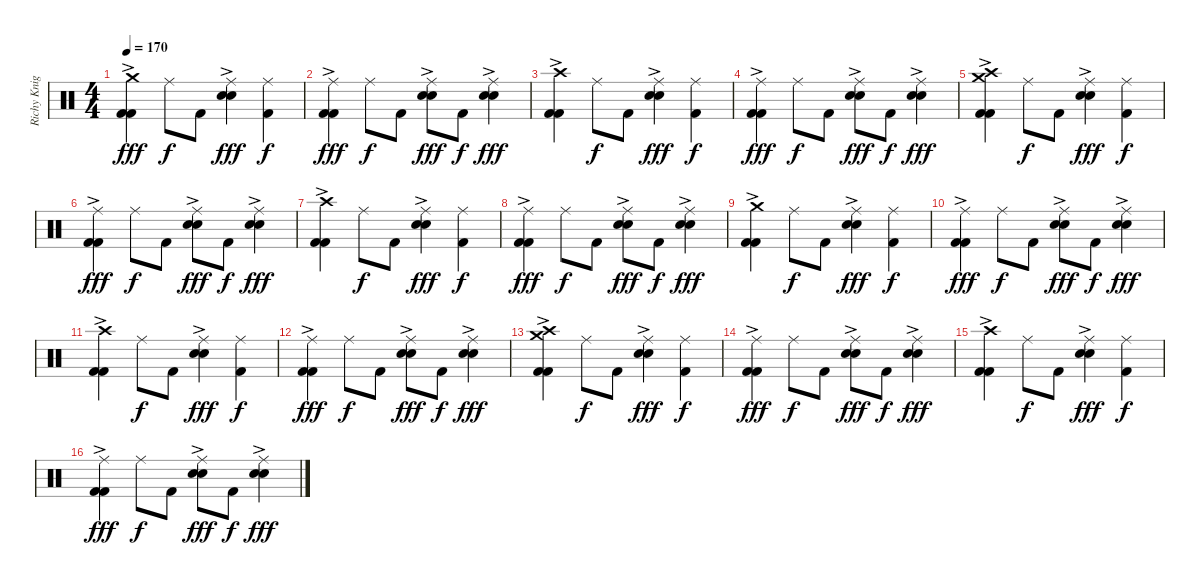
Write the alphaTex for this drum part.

\track ("Richy Knight (Drums)" "Richy Knig") {instrument percussion}
\staff {score}
\articulation defaults
\ts (4 4)
\tempo 170
\clef neutral
\ks c
("Crash medium (hit)"{ac} "Kick (hit) 2"{ac} "Kick (hit) 2"{ac}).4{dy fff} "Ride (middle)".8{dy f} "Kick (hit) 2".8 ("Ride (middle)"{ac} "Electric Snare (hit)"{ac} "Electric Snare (hit)"{ac}).4{dy fff} ("Ride (middle)" "Kick (hit) 2").4{dy f} |
("Ride (middle)"{ac} "Kick (hit) 2"{ac} "Kick (hit) 2"{ac}).4{dy fff} "Ride (middle)".8{dy f} "Kick (hit) 2".8 ("Ride (middle)"{ac} "Electric Snare (hit)"{ac} "Electric Snare (hit)"{ac}).8{dy fff} "Kick (hit) 2".8{dy f} ("Ride (middle)"{ac} "Electric Snare (hit)"{ac} "Electric Snare (hit)"{ac}).4{dy fff} |
("Crash high (hit)"{ac} "Kick (hit) 2"{ac} "Kick (hit) 2"{ac}).4 "Ride (middle)".8{dy f} "Kick (hit) 2".8 ("Ride (middle)"{ac} "Electric Snare (hit)"{ac} "Electric Snare (hit)"{ac}).4{dy fff} ("Ride (middle)" "Kick (hit) 2").4{dy f} |
("Ride (middle)"{ac} "Kick (hit) 2"{ac} "Kick (hit) 2"{ac}).4{dy fff} "Ride (middle)".8{dy f} "Kick (hit) 2".8 ("Ride (middle)"{ac} "Electric Snare (hit)"{ac} "Electric Snare (hit)"{ac}).8{dy fff} "Kick (hit) 2".8{dy f} ("Ride (middle)"{ac} "Electric Snare (hit)"{ac} "Electric Snare (hit)"{ac}).4{dy fff} |
("Crash high (hit)"{ac} "Crash medium (hit)" "Kick (hit) 2"{ac} "Kick (hit) 2"{ac}).4 "Ride (middle)".8{dy f} "Kick (hit) 2".8 ("Ride (middle)"{ac} "Electric Snare (hit)"{ac} "Electric Snare (hit)"{ac}).4{dy fff} ("Ride (middle)" "Kick (hit) 2").4{dy f} |
("Ride (middle)"{ac} "Kick (hit) 2"{ac} "Kick (hit) 2"{ac}).4{dy fff} "Ride (middle)".8{dy f} "Kick (hit) 2".8 ("Ride (middle)"{ac} "Electric Snare (hit)"{ac} "Electric Snare (hit)"{ac}).8{dy fff} "Kick (hit) 2".8{dy f} ("Ride (middle)"{ac} "Electric Snare (hit)"{ac} "Electric Snare (hit)"{ac}).4{dy fff} |
("Crash high (hit)"{ac} "Kick (hit) 2"{ac} "Kick (hit) 2"{ac}).4 "Ride (middle)".8{dy f} "Kick (hit) 2".8 ("Ride (middle)"{ac} "Electric Snare (hit)"{ac} "Electric Snare (hit)"{ac}).4{dy fff} ("Ride (middle)" "Kick (hit) 2").4{dy f} |
("Ride (middle)"{ac} "Kick (hit) 2"{ac} "Kick (hit) 2"{ac}).4{dy fff} "Ride (middle)".8{dy f} "Kick (hit) 2".8 ("Ride (middle)"{ac} "Electric Snare (hit)"{ac} "Electric Snare (hit)"{ac}).8{dy fff} "Kick (hit) 2".8{dy f} ("Ride (middle)"{ac} "Electric Snare (hit)"{ac} "Electric Snare (hit)"{ac}).4{dy fff} |
("Crash medium (hit)"{ac} "Kick (hit) 2"{ac} "Kick (hit) 2"{ac}).4 "Ride (middle)".8{dy f} "Kick (hit) 2".8 ("Ride (middle)"{ac} "Electric Snare (hit)"{ac} "Electric Snare (hit)"{ac}).4{dy fff} ("Ride (middle)" "Kick (hit) 2").4{dy f} |
("Ride (middle)"{ac} "Kick (hit) 2"{ac} "Kick (hit) 2"{ac}).4{dy fff} "Ride (middle)".8{dy f} "Kick (hit) 2".8 ("Ride (middle)"{ac} "Electric Snare (hit)"{ac} "Electric Snare (hit)"{ac}).8{dy fff} "Kick (hit) 2".8{dy f} ("Ride (middle)"{ac} "Electric Snare (hit)"{ac} "Electric Snare (hit)"{ac}).4{dy fff} |
("Crash high (hit)"{ac} "Kick (hit) 2"{ac} "Kick (hit) 2"{ac}).4 "Ride (middle)".8{dy f} "Kick (hit) 2".8 ("Ride (middle)"{ac} "Electric Snare (hit)"{ac} "Electric Snare (hit)"{ac}).4{dy fff} ("Ride (middle)" "Kick (hit) 2").4{dy f} |
("Ride (middle)"{ac} "Kick (hit) 2"{ac} "Kick (hit) 2"{ac}).4{dy fff} "Ride (middle)".8{dy f} "Kick (hit) 2".8 ("Ride (middle)"{ac} "Electric Snare (hit)"{ac} "Electric Snare (hit)"{ac}).8{dy fff} "Kick (hit) 2".8{dy f} ("Ride (middle)"{ac} "Electric Snare (hit)"{ac} "Electric Snare (hit)"{ac}).4{dy fff} |
("Crash high (hit)"{ac} "Crash medium (hit)" "Kick (hit) 2"{ac} "Kick (hit) 2"{ac}).4 "Ride (middle)".8{dy f} "Kick (hit) 2".8 ("Ride (middle)"{ac} "Electric Snare (hit)"{ac} "Electric Snare (hit)"{ac}).4{dy fff} ("Ride (middle)" "Kick (hit) 2").4{dy f} |
("Ride (middle)"{ac} "Kick (hit) 2"{ac} "Kick (hit) 2"{ac}).4{dy fff} "Ride (middle)".8{dy f} "Kick (hit) 2".8 ("Ride (middle)"{ac} "Electric Snare (hit)"{ac} "Electric Snare (hit)"{ac}).8{dy fff} "Kick (hit) 2".8{dy f} ("Ride (middle)"{ac} "Electric Snare (hit)"{ac} "Electric Snare (hit)"{ac}).4{dy fff} |
("Crash high (hit)"{ac} "Kick (hit) 2"{ac} "Kick (hit) 2"{ac}).4 "Ride (middle)".8{dy f} "Kick (hit) 2".8 ("Ride (middle)"{ac} "Electric Snare (hit)"{ac} "Electric Snare (hit)"{ac}).4{dy fff} ("Ride (middle)" "Kick (hit) 2").4{dy f} |
("Ride (middle)"{ac} "Kick (hit) 2"{ac} "Kick (hit) 2"{ac}).4{dy fff} "Ride (middle)".8{dy f} "Kick (hit) 2".8 ("Ride (middle)"{ac} "Electric Snare (hit)"{ac} "Electric Snare (hit)"{ac}).8{dy fff} "Kick (hit) 2".8{dy f} ("Ride (middle)"{ac} "Electric Snare (hit)"{ac} "Electric Snare (hit)"{ac}).4{dy fff}
